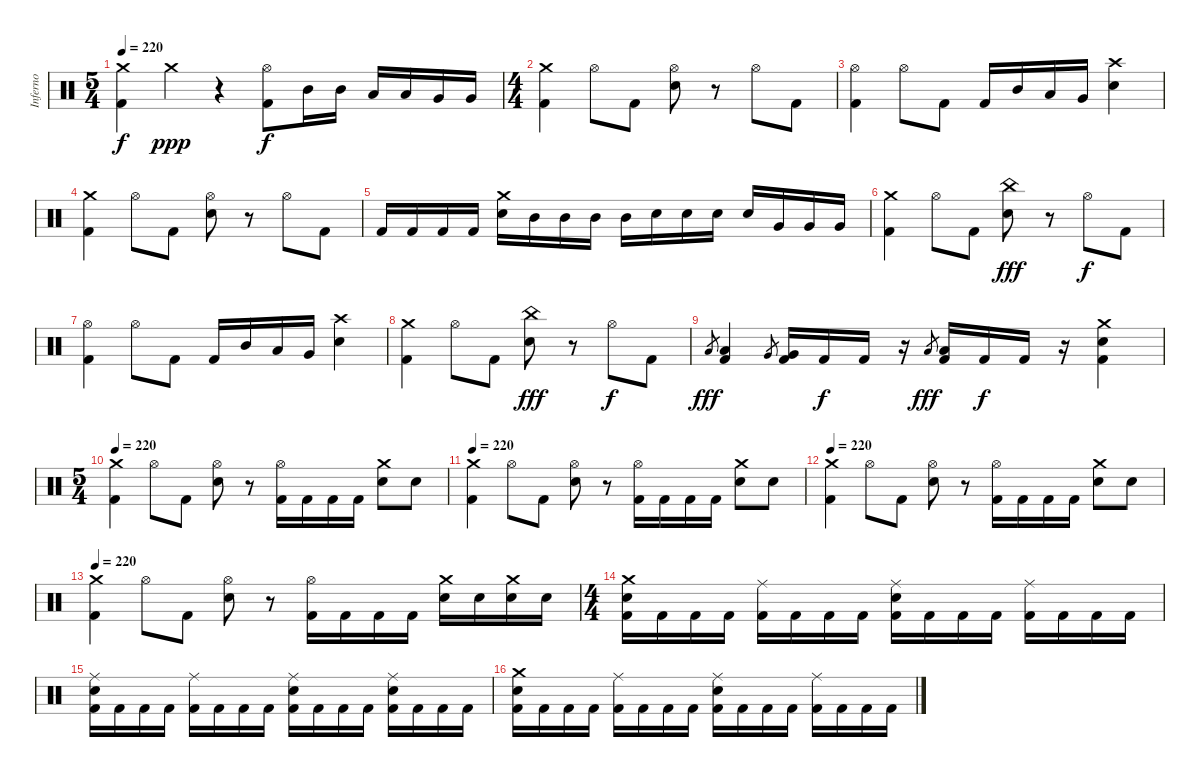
\track ("Inferno" "Inferno") {instrument percussion}
\staff {score}
\articulation defaults
\ts (5 4)
\tempo 220
\clef neutral
\ks c
("Crash medium (hit)" "Kick (hit) 2").4{dy f} "Crash medium (hit)".4{dy ppp} r.4 ("Hi-Hat (open)" "Kick (hit) 2").8{dy f} "Mid Tom (hit)".16 "Mid Tom (hit)".16 "Low Tom (hit)".16 "Low Tom (hit)".16 "Very Low Tom (hit)".16 "Very Low Tom (hit)".16 |
\ts (4 4)
("Crash medium (hit)" "Kick (hit) 2").4 "Hi-Hat (open)".8 "Kick (hit) 2".8 ("Hi-Hat (open)" "Snare (hit) 2").8 r.8 "Hi-Hat (open)".8 "Kick (hit) 2".8 |
("Hi-Hat (open)" "Kick (hit) 2").4 "Hi-Hat (open)".8 "Kick (hit) 2".8 "Kick (hit) 2".16 "Mid Tom (hit)".16 "Low Tom (hit)".16 "Very Low Tom (hit)".16 ("Crash high (hit)" "Snare (hit) 2").4 |
("Crash medium (hit)" "Kick (hit) 2").4 "Hi-Hat (open)".8 "Kick (hit) 2".8 ("Hi-Hat (open)" "Snare (hit) 2").8 r.8 "Hi-Hat (open)".8 "Kick (hit) 2".8 |
"Kick (hit) 2".16 "Kick (hit) 2".16 "Kick (hit) 2".16 "Kick (hit) 2".16 ("Crash medium (hit)" "Snare (hit) 2").16 "Mid Tom (hit)".16 "Mid Tom (hit)".16 "Mid Tom (hit)".16 "Mid Tom (hit)".16 "Snare (hit) 2".16 "Snare (hit) 2".16 "Snare (hit) 2".16 "Snare (hit) 2".16 "Very Low Tom (hit)".16 "Very Low Tom (hit)".16 "Very Low Tom (hit)".16 |
("Crash medium (hit)" "Kick (hit) 2").4 "Hi-Hat (open)".8 "Kick (hit) 2".8 ("China (hit)" "Snare (hit) 2").8{dy fff} r.8 "Hi-Hat (open)".8{dy f} "Kick (hit) 2".8 |
("Hi-Hat (open)" "Kick (hit) 2").4 "Hi-Hat (open)".8 "Kick (hit) 2".8 "Kick (hit) 2".16 "Mid Tom (hit)".16 "Low Tom (hit)".16 "Very Low Tom (hit)".16 ("Crash high (hit)" "Snare (hit) 2").4 |
("Crash medium (hit)" "Kick (hit) 2").4 "Hi-Hat (open)".8 "Kick (hit) 2".8 ("China (hit)" "Snare (hit) 2").8{dy fff} r.8 "Hi-Hat (open)".8{dy f} "Kick (hit) 2".8 |
"Low Tom (hit)".8{gr dy fff} ("Low Tom (hit)" "Kick (hit) 2").4 "Very Low Tom (hit)".8{gr} ("Very Low Tom (hit)" "Kick (hit) 2").16 "Kick (hit) 2".16{dy f} "Kick (hit) 2".16 r.16 "Low Floor Tom (hit)".8{gr dy fff} ("Low Floor Tom (hit)" "Kick (hit) 2").16 "Kick (hit) 2".16{dy f} "Kick (hit) 2".16 r.16 ("Crash medium (hit)" "Snare (hit) 2" "Kick (hit) 2").4 |
\ts (5 4)
\tempo 220
("Crash medium (hit)" "Kick (hit) 2").4 "Hi-Hat (open)".8 "Kick (hit) 2".8 ("Hi-Hat (open)" "Snare (hit) 2").8 r.8 ("Hi-Hat (open)" "Kick (hit) 2").16 "Kick (hit) 2".16 "Kick (hit) 2".16 "Kick (hit) 2".16 ("Crash medium (hit)" "Snare (hit) 2").8 "Snare (hit) 2".8 |
\tempo 220
("Crash medium (hit)" "Kick (hit) 2").4 "Hi-Hat (open)".8 "Kick (hit) 2".8 ("Hi-Hat (open)" "Snare (hit) 2").8 r.8 ("Hi-Hat (open)" "Kick (hit) 2").16 "Kick (hit) 2".16 "Kick (hit) 2".16 "Kick (hit) 2".16 ("Crash medium (hit)" "Snare (hit) 2").8 "Snare (hit) 2".8 |
\tempo 220
("Crash medium (hit)" "Kick (hit) 2").4 "Hi-Hat (open)".8 "Kick (hit) 2".8 ("Hi-Hat (open)" "Snare (hit) 2").8 r.8 ("Hi-Hat (open)" "Kick (hit) 2").16 "Kick (hit) 2".16 "Kick (hit) 2".16 "Kick (hit) 2".16 ("Crash medium (hit)" "Snare (hit) 2").8 "Snare (hit) 2".8 |
\tempo 220
("Crash medium (hit)" "Kick (hit) 2").4 "Hi-Hat (open)".8 "Kick (hit) 2".8 ("Hi-Hat (open)" "Snare (hit) 2").8 r.8 ("Hi-Hat (open)" "Kick (hit) 2").16 "Kick (hit) 2".16 "Kick (hit) 2".16 "Kick (hit) 2".16 ("Crash medium (hit)" "Snare (hit) 2").16 "Snare (hit) 2".16 ("Crash medium (hit)" "Snare (hit) 2").16 "Snare (hit) 2".16 |
\ts (4 4)
("Crash medium (hit)" "Snare (hit) 2" "Kick (hit) 2").16 "Kick (hit) 2".16 "Kick (hit) 2".16 "Kick (hit) 2".16 ("Ride (middle)" "Kick (hit) 2").16 "Kick (hit) 2".16 "Kick (hit) 2".16 "Kick (hit) 2".16 ("Ride (middle)" "Snare (hit) 2" "Kick (hit) 2").16 "Kick (hit) 2".16 "Kick (hit) 2".16 "Kick (hit) 2".16 ("Ride (middle)" "Kick (hit) 2").16 "Kick (hit) 2".16 "Kick (hit) 2".16 "Kick (hit) 2".16 |
("Ride (middle)" "Snare (hit) 2" "Kick (hit) 2").16 "Kick (hit) 2".16 "Kick (hit) 2".16 "Kick (hit) 2".16 ("Ride (middle)" "Kick (hit) 2").16 "Kick (hit) 2".16 "Kick (hit) 2".16 "Kick (hit) 2".16 ("Ride (middle)" "Snare (hit) 2" "Kick (hit) 2").16 "Kick (hit) 2".16 "Kick (hit) 2".16 "Kick (hit) 2".16 ("Ride (middle)" "Snare (hit) 2" "Kick (hit) 2").16 "Kick (hit) 2".16 "Kick (hit) 2".16 "Kick (hit) 2".16 |
("Crash medium (hit)" "Snare (hit) 2" "Kick (hit) 2").16 "Kick (hit) 2".16 "Kick (hit) 2".16 "Kick (hit) 2".16 ("Ride (middle)" "Kick (hit) 2").16 "Kick (hit) 2".16 "Kick (hit) 2".16 "Kick (hit) 2".16 ("Ride (middle)" "Snare (hit) 2" "Kick (hit) 2").16 "Kick (hit) 2".16 "Kick (hit) 2".16 "Kick (hit) 2".16 ("Ride (middle)" "Kick (hit) 2").16 "Kick (hit) 2".16 "Kick (hit) 2".16 "Kick (hit) 2".16
